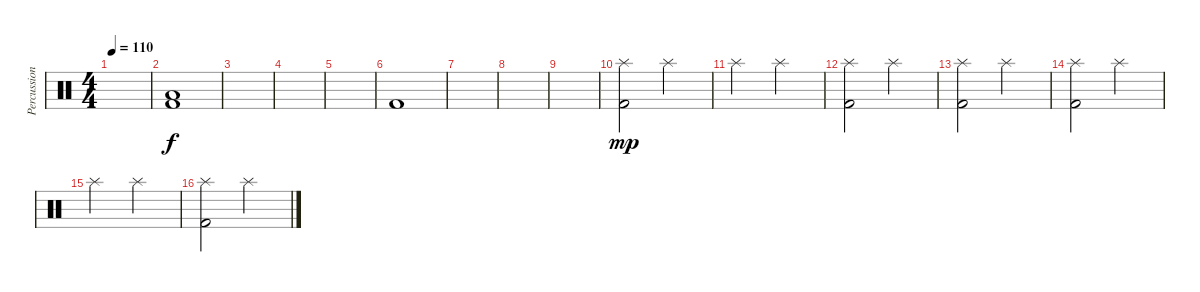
\track ("Percussions" "Percussion") {instrument percussion}
\staff {score}
\articulation defaults
\ts (4 4)
\tempo 110
\clef neutral
\ks c
|
("Low Floor Tom (hit)" "Kick (hit) 2").1 |
|
|
|
"Kick (hit) 2".1 |
|
|
|
("Splash (hit)" "Kick (hit) 2").2{dy mp} "Splash (hit)".2 |
"Splash (hit)".2 "Splash (hit)".2 |
("Splash (hit)" "Kick (hit) 2").2 "Splash (hit)".2 |
("Splash (hit)" "Kick (hit) 2").2 "Splash (hit)".2 |
("Splash (hit)" "Kick (hit) 2").2 "Splash (hit)".2 |
"Splash (hit)".2 "Splash (hit)".2 |
("Splash (hit)" "Kick (hit) 2").2 "Splash (hit)".2
